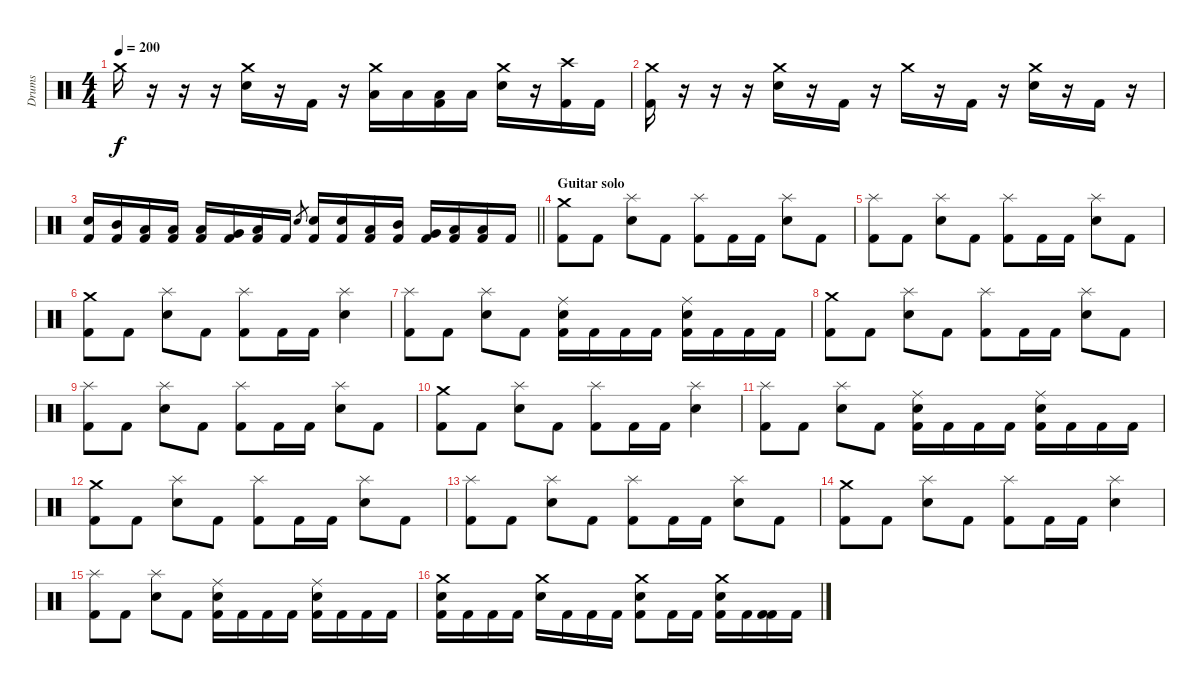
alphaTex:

\track ("Drums" "Drums") {instrument percussion}
\staff {score}
\articulation defaults
\ts (4 4)
\tempo 200
\clef neutral
\ks c "Crash medium (hit)".16{dy f}
r.16 r.16 r.16 ("Crash medium (hit)" "Snare (hit) 2").16 r.16 "Kick (hit) 2".16 r.16 ("Crash medium (hit)" "Low Floor Tom (hit)").16 "Low Floor Tom (hit)".16 ("Low Floor Tom (hit)" "Kick (hit) 2").16 "Low Floor Tom (hit)".16 ("Crash medium (hit)" "Snare (hit) 2").16 r.16 ("Crash high (hit)" "Kick (hit) 2").16 "Kick (hit) 2".16 |
("Crash medium (hit)" "Kick (hit) 2").16 r.16 r.16 r.16 ("Crash medium (hit)" "Snare (hit) 2").16 r.16 "Kick (hit) 2".16 r.16 "Crash medium (hit)".16 r.16 "Kick (hit) 2".16 r.16 ("Crash medium (hit)" "Snare (hit) 2").16 r.16 "Kick (hit) 2".16 r.16 |
\barLineRight lightlight
("Electric Snare (hit)" "Kick (hit) 2").16 ("Mid Tom (hit)" "Kick (hit) 2").16 ("Low Tom (hit)" "Kick (hit) 2").16 ("Low Tom (hit)" "Kick (hit) 2").16 ("Low Tom (hit)" "Kick (hit) 2").16 ("Very Low Tom (hit)" "Kick (hit) 2").16 ("Low Floor Tom (hit)" "Kick (hit) 2").16 "Kick (hit) 2".16 "Electric Snare (hit)".8{gr} ("Electric Snare (hit)" "Kick (hit) 2").16 ("Electric Snare (hit)" "Kick (hit) 2").16 ("Low Tom (hit)" "Kick (hit) 2").16 ("Mid Tom (hit)" "Kick (hit) 2").16 ("Very Low Tom (hit)" "Kick (hit) 2").16 ("Low Floor Tom (hit)" "Kick (hit) 2").16 ("Low Floor Tom (hit)" "Kick (hit) 2").16 "Kick (hit) 2".16 |
\section ("" "Guitar solo")
("Crash medium (hit)" "Kick (hit) 2").8 "Kick (hit) 2".8 ("Splash (hit)" "Electric Snare (hit)").8 "Kick (hit) 2".8 ("Splash (hit)" "Kick (hit) 2").8 "Kick (hit) 2".16 "Kick (hit) 2".16 ("Splash (hit)" "Electric Snare (hit)").8 "Kick (hit) 2".8 |
("Splash (hit)" "Kick (hit) 2").8 "Kick (hit) 2".8 ("Splash (hit)" "Electric Snare (hit)").8 "Kick (hit) 2".8 ("Splash (hit)" "Kick (hit) 2").8 "Kick (hit) 2".16 "Kick (hit) 2".16 ("Splash (hit)" "Electric Snare (hit)").8 "Kick (hit) 2".8 |
("Crash medium (hit)" "Kick (hit) 2").8 "Kick (hit) 2".8 ("Splash (hit)" "Electric Snare (hit)").8 "Kick (hit) 2".8 ("Splash (hit)" "Kick (hit) 2").8 "Kick (hit) 2".16 "Kick (hit) 2".16 ("Splash (hit)" "Electric Snare (hit)").4 |
("Splash (hit)" "Kick (hit) 2").8 "Kick (hit) 2".8 ("Splash (hit)" "Electric Snare (hit)").8 "Kick (hit) 2".8 ("Ride (middle)" "Electric Snare (hit)" "Kick (hit) 2").16 "Kick (hit) 2".16 "Kick (hit) 2".16 "Kick (hit) 2".16 ("Ride (middle)" "Electric Snare (hit)" "Kick (hit) 2").16 "Kick (hit) 2".16 "Kick (hit) 2".16 "Kick (hit) 2".16 |
("Crash medium (hit)" "Kick (hit) 2").8 "Kick (hit) 2".8 ("Splash (hit)" "Electric Snare (hit)").8 "Kick (hit) 2".8 ("Splash (hit)" "Kick (hit) 2").8 "Kick (hit) 2".16 "Kick (hit) 2".16 ("Splash (hit)" "Electric Snare (hit)").8 "Kick (hit) 2".8 |
("Splash (hit)" "Kick (hit) 2").8 "Kick (hit) 2".8 ("Splash (hit)" "Electric Snare (hit)").8 "Kick (hit) 2".8 ("Splash (hit)" "Kick (hit) 2").8 "Kick (hit) 2".16 "Kick (hit) 2".16 ("Splash (hit)" "Electric Snare (hit)").8 "Kick (hit) 2".8 |
("Crash medium (hit)" "Kick (hit) 2").8 "Kick (hit) 2".8 ("Splash (hit)" "Electric Snare (hit)").8 "Kick (hit) 2".8 ("Splash (hit)" "Kick (hit) 2").8 "Kick (hit) 2".16 "Kick (hit) 2".16 ("Splash (hit)" "Electric Snare (hit)").4 |
("Splash (hit)" "Kick (hit) 2").8 "Kick (hit) 2".8 ("Splash (hit)" "Electric Snare (hit)").8 "Kick (hit) 2".8 ("Ride (middle)" "Electric Snare (hit)" "Kick (hit) 2").16 "Kick (hit) 2".16 "Kick (hit) 2".16 "Kick (hit) 2".16 ("Ride (middle)" "Electric Snare (hit)" "Kick (hit) 2").16 "Kick (hit) 2".16 "Kick (hit) 2".16 "Kick (hit) 2".16 |
("Crash medium (hit)" "Kick (hit) 2").8 "Kick (hit) 2".8 ("Splash (hit)" "Electric Snare (hit)").8 "Kick (hit) 2".8 ("Splash (hit)" "Kick (hit) 2").8 "Kick (hit) 2".16 "Kick (hit) 2".16 ("Splash (hit)" "Electric Snare (hit)").8 "Kick (hit) 2".8 |
("Splash (hit)" "Kick (hit) 2").8 "Kick (hit) 2".8 ("Splash (hit)" "Electric Snare (hit)").8 "Kick (hit) 2".8 ("Splash (hit)" "Kick (hit) 2").8 "Kick (hit) 2".16 "Kick (hit) 2".16 ("Splash (hit)" "Electric Snare (hit)").8 "Kick (hit) 2".8 |
("Crash medium (hit)" "Kick (hit) 2").8 "Kick (hit) 2".8 ("Splash (hit)" "Electric Snare (hit)").8 "Kick (hit) 2".8 ("Splash (hit)" "Kick (hit) 2").8 "Kick (hit) 2".16 "Kick (hit) 2".16 ("Splash (hit)" "Electric Snare (hit)").4 |
("Splash (hit)" "Kick (hit) 2").8 "Kick (hit) 2".8 ("Splash (hit)" "Electric Snare (hit)").8 "Kick (hit) 2".8 ("Ride (middle)" "Electric Snare (hit)" "Kick (hit) 2").16 "Kick (hit) 2".16 "Kick (hit) 2".16 "Kick (hit) 2".16 ("Ride (middle)" "Electric Snare (hit)" "Kick (hit) 2").16 "Kick (hit) 2".16 "Kick (hit) 2".16 "Kick (hit) 2".16 |
("Crash medium (hit)" "Electric Snare (hit)" "Kick (hit) 2").16 "Kick (hit) 2".16 "Kick (hit) 2".16 "Kick (hit) 2".16 ("Crash medium (hit)" "Electric Snare (hit)").16 "Kick (hit) 2".16 "Kick (hit) 2".16 "Kick (hit) 2".16 ("Crash medium (hit)" "Electric Snare (hit)" "Kick (hit) 2").8 "Kick (hit) 2".16 "Kick (hit) 2".16 ("Crash medium (hit)" "Electric Snare (hit)" "Kick (hit) 2").16 "Kick (hit) 2".16 ("Kick (hit) 2" "Kick (hit) 2").16 "Kick (hit) 2".16
